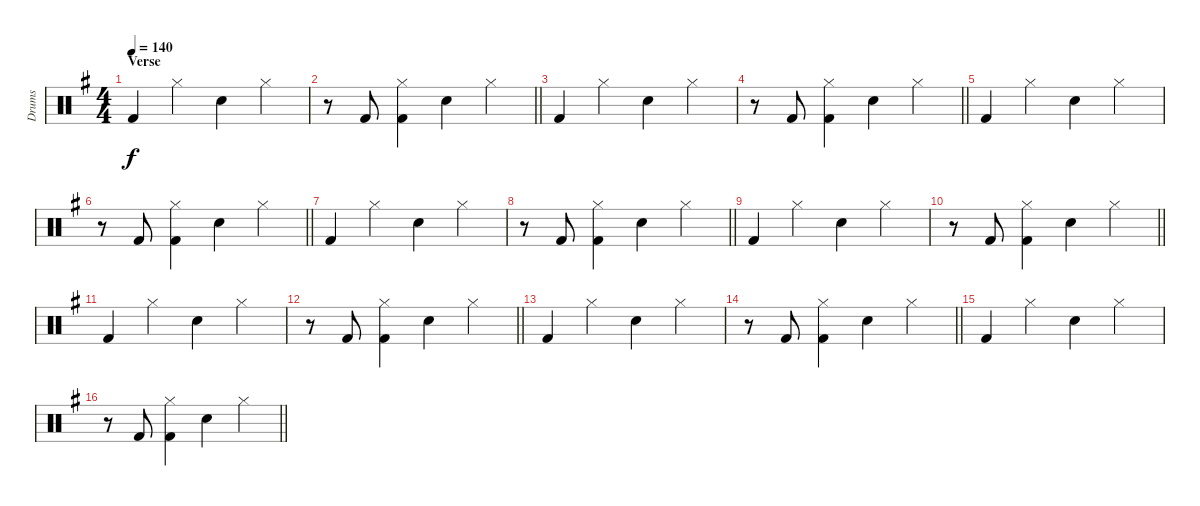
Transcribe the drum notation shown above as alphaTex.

\track ("Drums" "Drums") {instrument percussion}
\staff {score}
\articulation defaults
\ts (4 4)
\section ("" "Verse")
\tempo 140
\clef neutral
\ks g "Kick (hit) 2".4{dy f} "Hi-Hat (closed)".4 "Snare (hit) 2".4 "Hi-Hat (closed)".4
|
\barLineRight lightlight
r.8 "Kick (hit) 2".8 ("Hi-Hat (closed)" "Kick (hit) 2").4 "Snare (hit) 2".4 "Hi-Hat (closed)".4 |
"Kick (hit) 2".4 "Hi-Hat (closed)".4 "Snare (hit) 2".4 "Hi-Hat (closed)".4 |
\barLineRight lightlight
r.8 "Kick (hit) 2".8 ("Hi-Hat (closed)" "Kick (hit) 2").4 "Snare (hit) 2".4 "Hi-Hat (closed)".4 |
"Kick (hit) 2".4 "Hi-Hat (closed)".4 "Snare (hit) 2".4 "Hi-Hat (closed)".4 |
\barLineRight lightlight
r.8 "Kick (hit) 2".8 ("Hi-Hat (closed)" "Kick (hit) 2").4 "Snare (hit) 2".4 "Hi-Hat (closed)".4 |
"Kick (hit) 2".4 "Hi-Hat (closed)".4 "Snare (hit) 2".4 "Hi-Hat (closed)".4 |
\barLineRight lightlight
r.8 "Kick (hit) 2".8 ("Hi-Hat (closed)" "Kick (hit) 2").4 "Snare (hit) 2".4 "Hi-Hat (closed)".4 |
"Kick (hit) 2".4 "Hi-Hat (closed)".4 "Snare (hit) 2".4 "Hi-Hat (closed)".4 |
\barLineRight lightlight
r.8 "Kick (hit) 2".8 ("Hi-Hat (closed)" "Kick (hit) 2").4 "Snare (hit) 2".4 "Hi-Hat (closed)".4 |
"Kick (hit) 2".4 "Hi-Hat (closed)".4 "Snare (hit) 2".4 "Hi-Hat (closed)".4 |
\barLineRight lightlight
r.8 "Kick (hit) 2".8 ("Hi-Hat (closed)" "Kick (hit) 2").4 "Snare (hit) 2".4 "Hi-Hat (closed)".4 |
"Kick (hit) 2".4 "Hi-Hat (closed)".4 "Snare (hit) 2".4 "Hi-Hat (closed)".4 |
\barLineRight lightlight
r.8 "Kick (hit) 2".8 ("Hi-Hat (closed)" "Kick (hit) 2").4 "Snare (hit) 2".4 "Hi-Hat (closed)".4 |
"Kick (hit) 2".4 "Hi-Hat (closed)".4 "Snare (hit) 2".4 "Hi-Hat (closed)".4 |
\barLineRight lightlight
r.8 "Kick (hit) 2".8 ("Hi-Hat (closed)" "Kick (hit) 2").4 "Snare (hit) 2".4 "Hi-Hat (closed)".4
